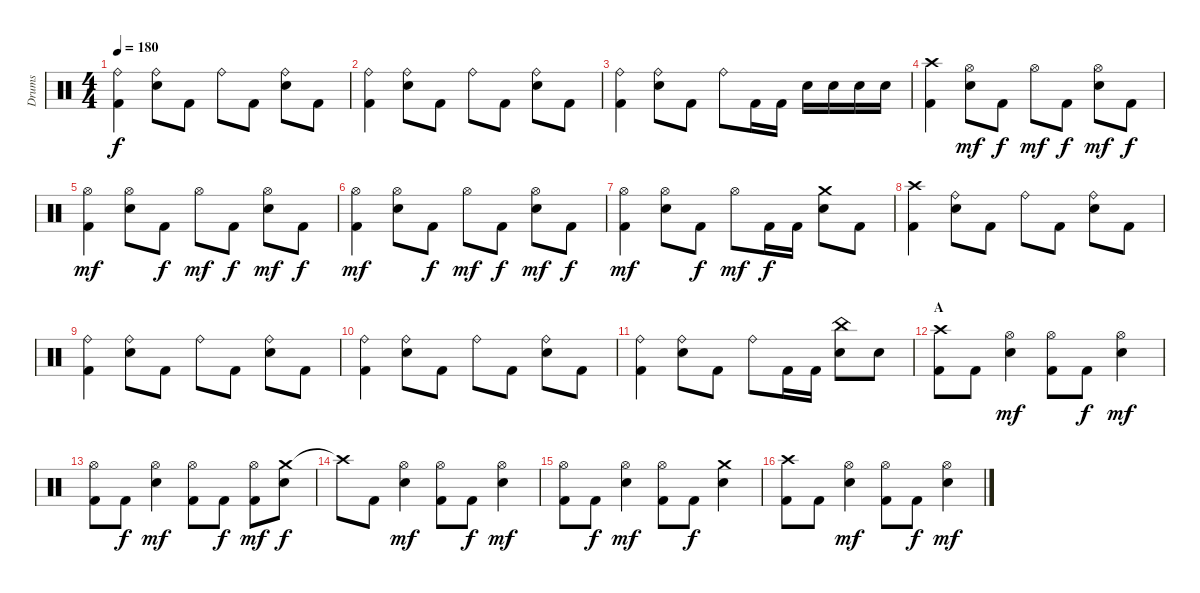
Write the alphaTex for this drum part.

\track ("Drums" "Drums") {instrument percussion}
\staff {score}
\articulation defaults
\ts (4 4)
\tempo 180
\clef neutral
\ks c
("Ride (bell)" "Kick (hit) 2").4{dy f} ("Ride (bell)" "Snare (hit) 2").8 "Kick (hit) 2".8 "Ride (bell)".8 "Kick (hit) 2".8 ("Ride (bell)" "Snare (hit) 2").8 "Kick (hit) 2".8 |
("Ride (bell)" "Kick (hit) 2").4 ("Ride (bell)" "Snare (hit) 2").8 "Kick (hit) 2".8 "Ride (bell)".8 "Kick (hit) 2".8 ("Ride (bell)" "Snare (hit) 2").8 "Kick (hit) 2".8 |
("Ride (bell)" "Kick (hit) 2").4 ("Ride (bell)" "Snare (hit) 2").8 "Kick (hit) 2".8 "Ride (bell)".8 "Kick (hit) 2".16 "Kick (hit) 2".16 "Snare (hit) 2".16 "Snare (hit) 2".16 "Snare (hit) 2".16 "Snare (hit) 2".16 |
("Crash high (hit)" "Kick (hit) 2").4 ("Hi-Hat (open)" "Snare (hit) 2").8{dy mf} "Kick (hit) 2".8{dy f} "Hi-Hat (open)".8{dy mf} "Kick (hit) 2".8{dy f} ("Hi-Hat (open)" "Snare (hit) 2").8{dy mf} "Kick (hit) 2".8{dy f} |
("Hi-Hat (open)" "Kick (hit) 2").4{dy mf} ("Hi-Hat (open)" "Snare (hit) 2").8 "Kick (hit) 2".8{dy f} "Hi-Hat (open)".8{dy mf} "Kick (hit) 2".8{dy f} ("Hi-Hat (open)" "Snare (hit) 2").8{dy mf} "Kick (hit) 2".8{dy f} |
("Hi-Hat (open)" "Kick (hit) 2").4{dy mf} ("Hi-Hat (open)" "Snare (hit) 2").8 "Kick (hit) 2".8{dy f} "Hi-Hat (open)".8{dy mf} "Kick (hit) 2".8{dy f} ("Hi-Hat (open)" "Snare (hit) 2").8{dy mf} "Kick (hit) 2".8{dy f} |
("Hi-Hat (open)" "Kick (hit) 2").4{dy mf} ("Hi-Hat (open)" "Snare (hit) 2").8 "Kick (hit) 2".8{dy f} "Hi-Hat (open)".8{dy mf} "Kick (hit) 2".16{dy f} "Kick (hit) 2".16 ("Crash medium (hit)" "Snare (hit) 2").8 "Kick (hit) 2".8 |
("Crash high (hit)" "Kick (hit) 2").4 ("Ride (bell)" "Snare (hit) 2").8 "Kick (hit) 2".8 "Ride (bell)".8 "Kick (hit) 2".8 ("Ride (bell)" "Snare (hit) 2").8 "Kick (hit) 2".8 |
("Ride (bell)" "Kick (hit) 2").4 ("Ride (bell)" "Snare (hit) 2").8 "Kick (hit) 2".8 "Ride (bell)".8 "Kick (hit) 2".8 ("Ride (bell)" "Snare (hit) 2").8 "Kick (hit) 2".8 |
("Ride (bell)" "Kick (hit) 2").4 ("Ride (bell)" "Snare (hit) 2").8 "Kick (hit) 2".8 "Ride (bell)".8 "Kick (hit) 2".8 ("Ride (bell)" "Snare (hit) 2").8 "Kick (hit) 2".8 |
("Ride (bell)" "Kick (hit) 2").4 ("Ride (bell)" "Snare (hit) 2").8 "Kick (hit) 2".8 "Ride (bell)".8 "Kick (hit) 2".16 "Kick (hit) 2".16 ("China (hit)" "Snare (hit) 2").8 "Snare (hit) 2".8 |
\section ("" "A")
("Crash high (hit)" "Kick (hit) 2").8 "Kick (hit) 2".8 ("Hi-Hat (open)" "Snare (hit) 2").4{dy mf} ("Hi-Hat (open)" "Kick (hit) 2").8 "Kick (hit) 2".8{dy f} ("Hi-Hat (open)" "Snare (hit) 2").4{dy mf} |
("Hi-Hat (open)" "Kick (hit) 2").8 "Kick (hit) 2".8{dy f} ("Hi-Hat (open)" "Snare (hit) 2").4{dy mf} ("Hi-Hat (open)" "Kick (hit) 2").8 "Kick (hit) 2".8{dy f} ("Hi-Hat (open)" "Kick (hit) 2").8{dy mf} ("Crash medium (hit)" "Snare (hit) 2").8{dy f} |
"Crash high (hit)"{t}.8 "Kick (hit) 2".8 ("Hi-Hat (open)" "Snare (hit) 2").4{dy mf} ("Hi-Hat (open)" "Kick (hit) 2").8 "Kick (hit) 2".8{dy f} ("Hi-Hat (open)" "Snare (hit) 2").4{dy mf} |
("Hi-Hat (open)" "Kick (hit) 2").8 "Kick (hit) 2".8{dy f} ("Hi-Hat (open)" "Snare (hit) 2").4{dy mf} ("Hi-Hat (open)" "Kick (hit) 2").8 "Kick (hit) 2".8{dy f} ("Crash medium (hit)" "Snare (hit) 2").4 |
("Crash high (hit)" "Kick (hit) 2").8 "Kick (hit) 2".8 ("Hi-Hat (open)" "Snare (hit) 2").4{dy mf} ("Hi-Hat (open)" "Kick (hit) 2").8 "Kick (hit) 2".8{dy f} ("Hi-Hat (open)" "Snare (hit) 2").4{dy mf}
